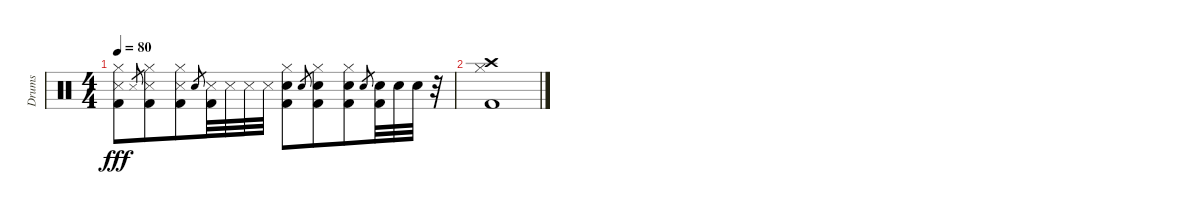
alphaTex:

\track ("Drums" "Drums") {instrument percussion}
\staff {score}
\articulation defaults
\ts (4 4)
\tempo 80
\clef neutral
\ks c
("Hi-Hat (closed)" "Snare (side stick) 3" "Kick (hit) 2").8{dy fff} "Snare (side stick) 3".8{gr} ("Hi-Hat (closed)" "Snare (side stick) 3" "Kick (hit) 2").8{beam merge} ("Hi-Hat (closed)" "Snare (side stick) 3" "Kick (hit) 2").8 "Snare (hit) 2".8{gr} ("Snare (side stick) 3" "Kick (hit) 2").32 "Snare (side stick) 3".32 "Snare (side stick) 3".32 "Snare (side stick) 3".32 ("Hi-Hat (closed)" "Snare (hit) 2" "Kick (hit) 2").8 "Snare (hit) 2".8{gr} ("Hi-Hat (closed)" "Snare (hit) 2" "Kick (hit) 2").8{beam merge} ("Hi-Hat (closed)" "Snare (hit) 2" "Kick (hit) 2").8 "Snare (hit) 2".8{gr} ("Snare (hit) 2" "Kick (hit) 2").32 "Snare (hit) 2".32 "Snare (hit) 2".32 r.32 |
("Hi-Hat (closed)" "Crash high (hit)" "Kick (hit) 2").1
